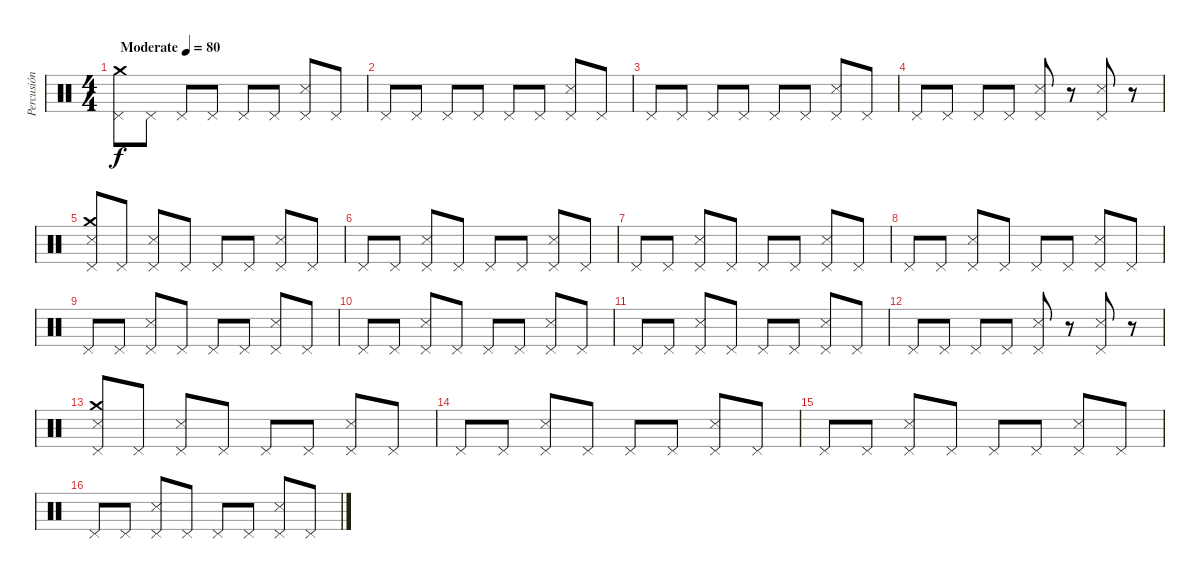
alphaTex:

\track ("Percusión" "Percusión") {instrument percussion}
\staff {score}
\articulation defaults
\ts (4 4)
\tempo (80 "Moderate")
\clef neutral
\ks c
("Pedal Hi-Hat (hit)" "Crash medium (hit)").8{dy f} "Pedal Hi-Hat (hit)".8 "Pedal Hi-Hat (hit)".8 "Pedal Hi-Hat (hit)".8 "Pedal Hi-Hat (hit)".8 "Pedal Hi-Hat (hit)".8 ("Pedal Hi-Hat (hit)" "Snare (side stick) 3").8 "Pedal Hi-Hat (hit)".8 |
"Pedal Hi-Hat (hit)".8 "Pedal Hi-Hat (hit)".8 "Pedal Hi-Hat (hit)".8 "Pedal Hi-Hat (hit)".8 "Pedal Hi-Hat (hit)".8 "Pedal Hi-Hat (hit)".8 ("Pedal Hi-Hat (hit)" "Snare (side stick) 3").8 "Pedal Hi-Hat (hit)".8 |
"Pedal Hi-Hat (hit)".8 "Pedal Hi-Hat (hit)".8 "Pedal Hi-Hat (hit)".8 "Pedal Hi-Hat (hit)".8 "Pedal Hi-Hat (hit)".8 "Pedal Hi-Hat (hit)".8 ("Pedal Hi-Hat (hit)" "Snare (side stick) 3").8 "Pedal Hi-Hat (hit)".8 |
"Pedal Hi-Hat (hit)".8 "Pedal Hi-Hat (hit)".8 "Pedal Hi-Hat (hit)".8 "Pedal Hi-Hat (hit)".8 ("Pedal Hi-Hat (hit)" "Snare (side stick) 3").8 r.8 ("Pedal Hi-Hat (hit)" "Snare (side stick) 3").8 r.8 |
("Pedal Hi-Hat (hit)" "Snare (side stick) 3" "Crash medium (hit)").8 "Pedal Hi-Hat (hit)".8 ("Pedal Hi-Hat (hit)" "Snare (side stick) 3").8 "Pedal Hi-Hat (hit)".8 "Pedal Hi-Hat (hit)".8 "Pedal Hi-Hat (hit)".8 ("Pedal Hi-Hat (hit)" "Snare (side stick) 3").8 "Pedal Hi-Hat (hit)".8 |
"Pedal Hi-Hat (hit)".8 "Pedal Hi-Hat (hit)".8 ("Pedal Hi-Hat (hit)" "Snare (side stick) 3").8 "Pedal Hi-Hat (hit)".8 "Pedal Hi-Hat (hit)".8 "Pedal Hi-Hat (hit)".8 ("Pedal Hi-Hat (hit)" "Snare (side stick) 3").8 "Pedal Hi-Hat (hit)".8 |
"Pedal Hi-Hat (hit)".8 "Pedal Hi-Hat (hit)".8 ("Pedal Hi-Hat (hit)" "Snare (side stick) 3").8 "Pedal Hi-Hat (hit)".8 "Pedal Hi-Hat (hit)".8 "Pedal Hi-Hat (hit)".8 ("Pedal Hi-Hat (hit)" "Snare (side stick) 3").8 "Pedal Hi-Hat (hit)".8 |
"Pedal Hi-Hat (hit)".8 "Pedal Hi-Hat (hit)".8 ("Pedal Hi-Hat (hit)" "Snare (side stick) 3").8 "Pedal Hi-Hat (hit)".8 "Pedal Hi-Hat (hit)".8 "Pedal Hi-Hat (hit)".8 ("Pedal Hi-Hat (hit)" "Snare (side stick) 3").8 "Pedal Hi-Hat (hit)".8 |
"Pedal Hi-Hat (hit)".8 "Pedal Hi-Hat (hit)".8 ("Pedal Hi-Hat (hit)" "Snare (side stick) 3").8 "Pedal Hi-Hat (hit)".8 "Pedal Hi-Hat (hit)".8 "Pedal Hi-Hat (hit)".8 ("Pedal Hi-Hat (hit)" "Snare (side stick) 3").8 "Pedal Hi-Hat (hit)".8 |
"Pedal Hi-Hat (hit)".8 "Pedal Hi-Hat (hit)".8 ("Pedal Hi-Hat (hit)" "Snare (side stick) 3").8 "Pedal Hi-Hat (hit)".8 "Pedal Hi-Hat (hit)".8 "Pedal Hi-Hat (hit)".8 ("Pedal Hi-Hat (hit)" "Snare (side stick) 3").8 "Pedal Hi-Hat (hit)".8 |
"Pedal Hi-Hat (hit)".8 "Pedal Hi-Hat (hit)".8 ("Pedal Hi-Hat (hit)" "Snare (side stick) 3").8 "Pedal Hi-Hat (hit)".8 "Pedal Hi-Hat (hit)".8 "Pedal Hi-Hat (hit)".8 ("Pedal Hi-Hat (hit)" "Snare (side stick) 3").8 "Pedal Hi-Hat (hit)".8 |
"Pedal Hi-Hat (hit)".8 "Pedal Hi-Hat (hit)".8 "Pedal Hi-Hat (hit)".8 "Pedal Hi-Hat (hit)".8 ("Pedal Hi-Hat (hit)" "Snare (side stick) 3").8 r.8 ("Pedal Hi-Hat (hit)" "Snare (side stick) 3").8 r.8 |
("Pedal Hi-Hat (hit)" "Snare (side stick) 3" "Crash medium (hit)").8 "Pedal Hi-Hat (hit)".8 ("Pedal Hi-Hat (hit)" "Snare (side stick) 3").8 "Pedal Hi-Hat (hit)".8 "Pedal Hi-Hat (hit)".8 "Pedal Hi-Hat (hit)".8 ("Pedal Hi-Hat (hit)" "Snare (side stick) 3").8 "Pedal Hi-Hat (hit)".8 |
"Pedal Hi-Hat (hit)".8 "Pedal Hi-Hat (hit)".8 ("Pedal Hi-Hat (hit)" "Snare (side stick) 3").8 "Pedal Hi-Hat (hit)".8 "Pedal Hi-Hat (hit)".8 "Pedal Hi-Hat (hit)".8 ("Pedal Hi-Hat (hit)" "Snare (side stick) 3").8 "Pedal Hi-Hat (hit)".8 |
"Pedal Hi-Hat (hit)".8 "Pedal Hi-Hat (hit)".8 ("Pedal Hi-Hat (hit)" "Snare (side stick) 3").8 "Pedal Hi-Hat (hit)".8 "Pedal Hi-Hat (hit)".8 "Pedal Hi-Hat (hit)".8 ("Pedal Hi-Hat (hit)" "Snare (side stick) 3").8 "Pedal Hi-Hat (hit)".8 |
"Pedal Hi-Hat (hit)".8 "Pedal Hi-Hat (hit)".8 ("Pedal Hi-Hat (hit)" "Snare (side stick) 3").8 "Pedal Hi-Hat (hit)".8 "Pedal Hi-Hat (hit)".8 "Pedal Hi-Hat (hit)".8 ("Pedal Hi-Hat (hit)" "Snare (side stick) 3").8 "Pedal Hi-Hat (hit)".8
